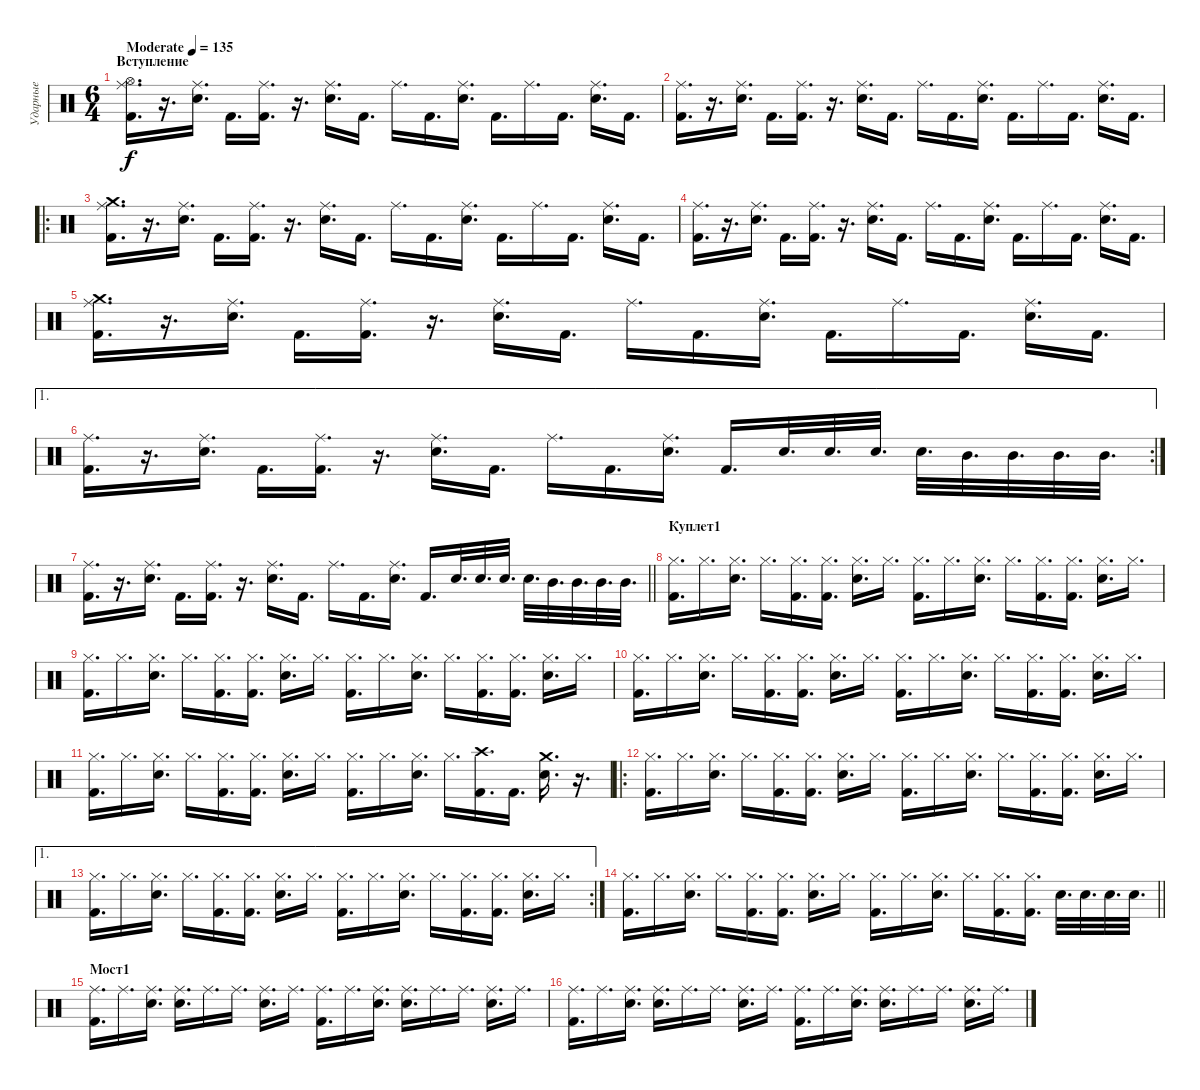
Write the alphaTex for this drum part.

\track ("Ударные" "Ударные") {instrument percussion}
\staff {score}
\articulation defaults
\ts (6 4)
\section ("" "Вступление")
\tempo (135 "Moderate")
\clef neutral
\ks c
("Ride (middle)" "Hi-Hat (open)" "Kick (hit) 2").16{d dy f} r.16{d} ("Ride (middle)" "Electric Snare (hit)").16{d} "Kick (hit) 2".16{d} ("Ride (middle)" "Kick (hit) 2").16{d} r.16{d} ("Ride (middle)" "Electric Snare (hit)").16{d} "Kick (hit) 2".16{d} "Ride (middle)".16{d} "Kick (hit) 2".16{d} ("Ride (middle)" "Electric Snare (hit)").16{d} "Kick (hit) 2".16{d} "Ride (middle)".16{d} "Kick (hit) 2".16{d} ("Ride (middle)" "Electric Snare (hit)").16{d} "Kick (hit) 2".16{d} |
("Ride (middle)" "Kick (hit) 2").16{d} r.16{d} ("Ride (middle)" "Electric Snare (hit)").16{d} "Kick (hit) 2".16{d} ("Ride (middle)" "Kick (hit) 2").16{d} r.16{d} ("Ride (middle)" "Electric Snare (hit)").16{d} "Kick (hit) 2".16{d} "Ride (middle)".16{d} "Kick (hit) 2".16{d} ("Ride (middle)" "Electric Snare (hit)").16{d} "Kick (hit) 2".16{d} "Ride (middle)".16{d} "Kick (hit) 2".16{d} ("Ride (middle)" "Electric Snare (hit)").16{d} "Kick (hit) 2".16{d} |
\ro
("Ride (middle)" "Crash medium (hit)" "Kick (hit) 2").16{d} r.16{d} ("Ride (middle)" "Electric Snare (hit)").16{d} "Kick (hit) 2".16{d} ("Ride (middle)" "Kick (hit) 2").16{d} r.16{d} ("Ride (middle)" "Electric Snare (hit)").16{d} "Kick (hit) 2".16{d} "Ride (middle)".16{d} "Kick (hit) 2".16{d} ("Ride (middle)" "Electric Snare (hit)").16{d} "Kick (hit) 2".16{d} "Ride (middle)".16{d} "Kick (hit) 2".16{d} ("Ride (middle)" "Electric Snare (hit)").16{d} "Kick (hit) 2".16{d} |
("Ride (middle)" "Kick (hit) 2").16{d} r.16{d} ("Ride (middle)" "Electric Snare (hit)").16{d} "Kick (hit) 2".16{d} ("Ride (middle)" "Kick (hit) 2").16{d} r.16{d} ("Ride (middle)" "Electric Snare (hit)").16{d} "Kick (hit) 2".16{d} "Ride (middle)".16{d} "Kick (hit) 2".16{d} ("Ride (middle)" "Electric Snare (hit)").16{d} "Kick (hit) 2".16{d} "Ride (middle)".16{d} "Kick (hit) 2".16{d} ("Ride (middle)" "Electric Snare (hit)").16{d} "Kick (hit) 2".16{d} |
("Ride (middle)" "Crash medium (hit)" "Kick (hit) 2").16{d} r.16{d} ("Ride (middle)" "Electric Snare (hit)").16{d} "Kick (hit) 2".16{d} ("Ride (middle)" "Kick (hit) 2").16{d} r.16{d} ("Ride (middle)" "Electric Snare (hit)").16{d} "Kick (hit) 2".16{d} "Ride (middle)".16{d} "Kick (hit) 2".16{d} ("Ride (middle)" "Electric Snare (hit)").16{d} "Kick (hit) 2".16{d} "Ride (middle)".16{d} "Kick (hit) 2".16{d} ("Ride (middle)" "Electric Snare (hit)").16{d} "Kick (hit) 2".16{d} |
\ae 1
\rc 2
("Ride (middle)" "Kick (hit) 2").16{d} r.16{d} ("Ride (middle)" "Electric Snare (hit)").16{d} "Kick (hit) 2".16{d} ("Ride (middle)" "Kick (hit) 2").16{d} r.16{d} ("Ride (middle)" "Electric Snare (hit)").16{d} "Kick (hit) 2".16{d} "Ride (middle)".16{d} "Kick (hit) 2".16{d} ("Ride (middle)" "Electric Snare (hit)").16{d} "Kick (hit) 2".16{d} "Electric Snare (hit)".32{d} "Electric Snare (hit)".32{d} "Electric Snare (hit)".32{d} "Electric Snare (hit)".32{d} "Mid Tom (hit)".32{d} "Mid Tom (hit)".32{d} "Mid Tom (hit)".32{d} "Mid Tom (hit)".32{d} |
\barLineRight lightlight
("Ride (middle)" "Kick (hit) 2").16{d} r.16{d} ("Ride (middle)" "Electric Snare (hit)").16{d} "Kick (hit) 2".16{d} ("Ride (middle)" "Kick (hit) 2").16{d} r.16{d} ("Ride (middle)" "Electric Snare (hit)").16{d} "Kick (hit) 2".16{d} "Ride (middle)".16{d} "Kick (hit) 2".16{d} ("Ride (middle)" "Electric Snare (hit)").16{d} "Kick (hit) 2".16{d} "Electric Snare (hit)".32{d} "Electric Snare (hit)".32{d} "Electric Snare (hit)".32{d} "Electric Snare (hit)".32{d} "Mid Tom (hit)".32{d} "Mid Tom (hit)".32{d} "Mid Tom (hit)".32{d} "Mid Tom (hit)".32{d} |
\section ("" "Куплет1")
("Hi-Hat (closed)" "Kick (hit) 2").16{d} "Hi-Hat (closed)".16{d} ("Hi-Hat (closed)" "Electric Snare (hit)").16{d} "Hi-Hat (closed)".16{d} ("Hi-Hat (closed)" "Kick (hit) 2").16{d} ("Hi-Hat (closed)" "Kick (hit) 2").16{d} ("Hi-Hat (closed)" "Electric Snare (hit)").16{d} "Hi-Hat (closed)".16{d} ("Hi-Hat (closed)" "Kick (hit) 2").16{d} "Hi-Hat (closed)".16{d} ("Hi-Hat (closed)" "Electric Snare (hit)").16{d} "Hi-Hat (closed)".16{d} ("Hi-Hat (closed)" "Kick (hit) 2").16{d} ("Hi-Hat (closed)" "Kick (hit) 2").16{d} ("Hi-Hat (closed)" "Electric Snare (hit)").16{d} "Hi-Hat (closed)".16{d} |
("Hi-Hat (closed)" "Kick (hit) 2").16{d} "Hi-Hat (closed)".16{d} ("Hi-Hat (closed)" "Electric Snare (hit)").16{d} "Hi-Hat (closed)".16{d} ("Hi-Hat (closed)" "Kick (hit) 2").16{d} ("Hi-Hat (closed)" "Kick (hit) 2").16{d} ("Hi-Hat (closed)" "Electric Snare (hit)").16{d} "Hi-Hat (closed)".16{d} ("Hi-Hat (closed)" "Kick (hit) 2").16{d} "Hi-Hat (closed)".16{d} ("Hi-Hat (closed)" "Electric Snare (hit)").16{d} "Hi-Hat (closed)".16{d} ("Hi-Hat (closed)" "Kick (hit) 2").16{d} ("Hi-Hat (closed)" "Kick (hit) 2").16{d} ("Hi-Hat (closed)" "Electric Snare (hit)").16{d} "Hi-Hat (closed)".16{d} |
("Hi-Hat (closed)" "Kick (hit) 2").16{d} "Hi-Hat (closed)".16{d} ("Hi-Hat (closed)" "Electric Snare (hit)").16{d} "Hi-Hat (closed)".16{d} ("Hi-Hat (closed)" "Kick (hit) 2").16{d} ("Hi-Hat (closed)" "Kick (hit) 2").16{d} ("Hi-Hat (closed)" "Electric Snare (hit)").16{d} "Hi-Hat (closed)".16{d} ("Hi-Hat (closed)" "Kick (hit) 2").16{d} "Hi-Hat (closed)".16{d} ("Hi-Hat (closed)" "Electric Snare (hit)").16{d} "Hi-Hat (closed)".16{d} ("Hi-Hat (closed)" "Kick (hit) 2").16{d} ("Hi-Hat (closed)" "Kick (hit) 2").16{d} ("Hi-Hat (closed)" "Electric Snare (hit)").16{d} "Hi-Hat (closed)".16{d} |
("Hi-Hat (closed)" "Kick (hit) 2").16{d} "Hi-Hat (closed)".16{d} ("Hi-Hat (closed)" "Electric Snare (hit)").16{d} "Hi-Hat (closed)".16{d} ("Hi-Hat (closed)" "Kick (hit) 2").16{d} ("Hi-Hat (closed)" "Kick (hit) 2").16{d} ("Hi-Hat (closed)" "Electric Snare (hit)").16{d} "Hi-Hat (closed)".16{d} ("Hi-Hat (closed)" "Kick (hit) 2").16{d} "Hi-Hat (closed)".16{d} ("Hi-Hat (closed)" "Electric Snare (hit)").16{d} "Hi-Hat (closed)".16{d} ("Crash high (hit)" "Kick (hit) 2").16{d} "Kick (hit) 2".16{d} ("Crash medium (hit)" "Electric Snare (hit)").16{d} r.16{d} |
\ro
("Hi-Hat (closed)" "Kick (hit) 2").16{d} "Hi-Hat (closed)".16{d} ("Hi-Hat (closed)" "Electric Snare (hit)").16{d} "Hi-Hat (closed)".16{d} ("Hi-Hat (closed)" "Kick (hit) 2").16{d} ("Hi-Hat (closed)" "Kick (hit) 2").16{d} ("Hi-Hat (closed)" "Electric Snare (hit)").16{d} "Hi-Hat (closed)".16{d} ("Hi-Hat (closed)" "Kick (hit) 2").16{d} "Hi-Hat (closed)".16{d} ("Hi-Hat (closed)" "Electric Snare (hit)").16{d} "Hi-Hat (closed)".16{d} ("Hi-Hat (closed)" "Kick (hit) 2").16{d} ("Hi-Hat (closed)" "Kick (hit) 2").16{d} ("Hi-Hat (closed)" "Electric Snare (hit)").16{d} "Hi-Hat (closed)".16{d} |
\ae 1
\rc 2
("Hi-Hat (closed)" "Kick (hit) 2").16{d} "Hi-Hat (closed)".16{d} ("Hi-Hat (closed)" "Electric Snare (hit)").16{d} "Hi-Hat (closed)".16{d} ("Hi-Hat (closed)" "Kick (hit) 2").16{d} ("Hi-Hat (closed)" "Kick (hit) 2").16{d} ("Hi-Hat (closed)" "Electric Snare (hit)").16{d} "Hi-Hat (closed)".16{d} ("Hi-Hat (closed)" "Kick (hit) 2").16{d} "Hi-Hat (closed)".16{d} ("Hi-Hat (closed)" "Electric Snare (hit)").16{d} "Hi-Hat (closed)".16{d} ("Hi-Hat (closed)" "Kick (hit) 2").16{d} ("Hi-Hat (closed)" "Kick (hit) 2").16{d} ("Hi-Hat (closed)" "Electric Snare (hit)").16{d} "Hi-Hat (closed)".16{d} |
\barLineRight lightlight
("Hi-Hat (closed)" "Kick (hit) 2").16{d} "Hi-Hat (closed)".16{d} ("Hi-Hat (closed)" "Electric Snare (hit)").16{d} "Hi-Hat (closed)".16{d} ("Hi-Hat (closed)" "Kick (hit) 2").16{d} ("Hi-Hat (closed)" "Kick (hit) 2").16{d} ("Hi-Hat (closed)" "Electric Snare (hit)").16{d} "Hi-Hat (closed)".16{d} ("Hi-Hat (closed)" "Kick (hit) 2").16{d} "Hi-Hat (closed)".16{d} ("Hi-Hat (closed)" "Electric Snare (hit)").16{d} "Hi-Hat (closed)".16{d} ("Hi-Hat (closed)" "Kick (hit) 2").16{d} ("Hi-Hat (closed)" "Kick (hit) 2").16{d} "Electric Snare (hit)".32{d} "Electric Snare (hit)".32{d} "Electric Snare (hit)".32{d} "Electric Snare (hit)".32{d} |
\section ("" "Мост1")
("Ride (middle)" "Kick (hit) 2").16{d} "Ride (middle)".16{d} ("Ride (middle)" "Electric Snare (hit)").16{d} ("Ride (middle)" "Electric Snare (hit)").16{d} "Ride (middle)".16{d} "Ride (middle)".16{d} ("Ride (middle)" "Electric Snare (hit)").16{d} "Ride (middle)".16{d} ("Ride (middle)" "Kick (hit) 2").16{d} "Ride (middle)".16{d} ("Ride (middle)" "Electric Snare (hit)").16{d} ("Ride (middle)" "Electric Snare (hit)").16{d} "Ride (middle)".16{d} "Ride (middle)".16{d} ("Ride (middle)" "Electric Snare (hit)").16{d} "Ride (middle)".16{d} |
("Ride (middle)" "Kick (hit) 2").16{d} "Ride (middle)".16{d} ("Ride (middle)" "Electric Snare (hit)").16{d} ("Ride (middle)" "Electric Snare (hit)").16{d} "Ride (middle)".16{d} "Ride (middle)".16{d} ("Ride (middle)" "Electric Snare (hit)").16{d} "Ride (middle)".16{d} ("Ride (middle)" "Kick (hit) 2").16{d} "Ride (middle)".16{d} ("Ride (middle)" "Electric Snare (hit)").16{d} ("Ride (middle)" "Electric Snare (hit)").16{d} "Ride (middle)".16{d} "Ride (middle)".16{d} ("Ride (middle)" "Electric Snare (hit)").16{d} "Ride (middle)".16{d}
